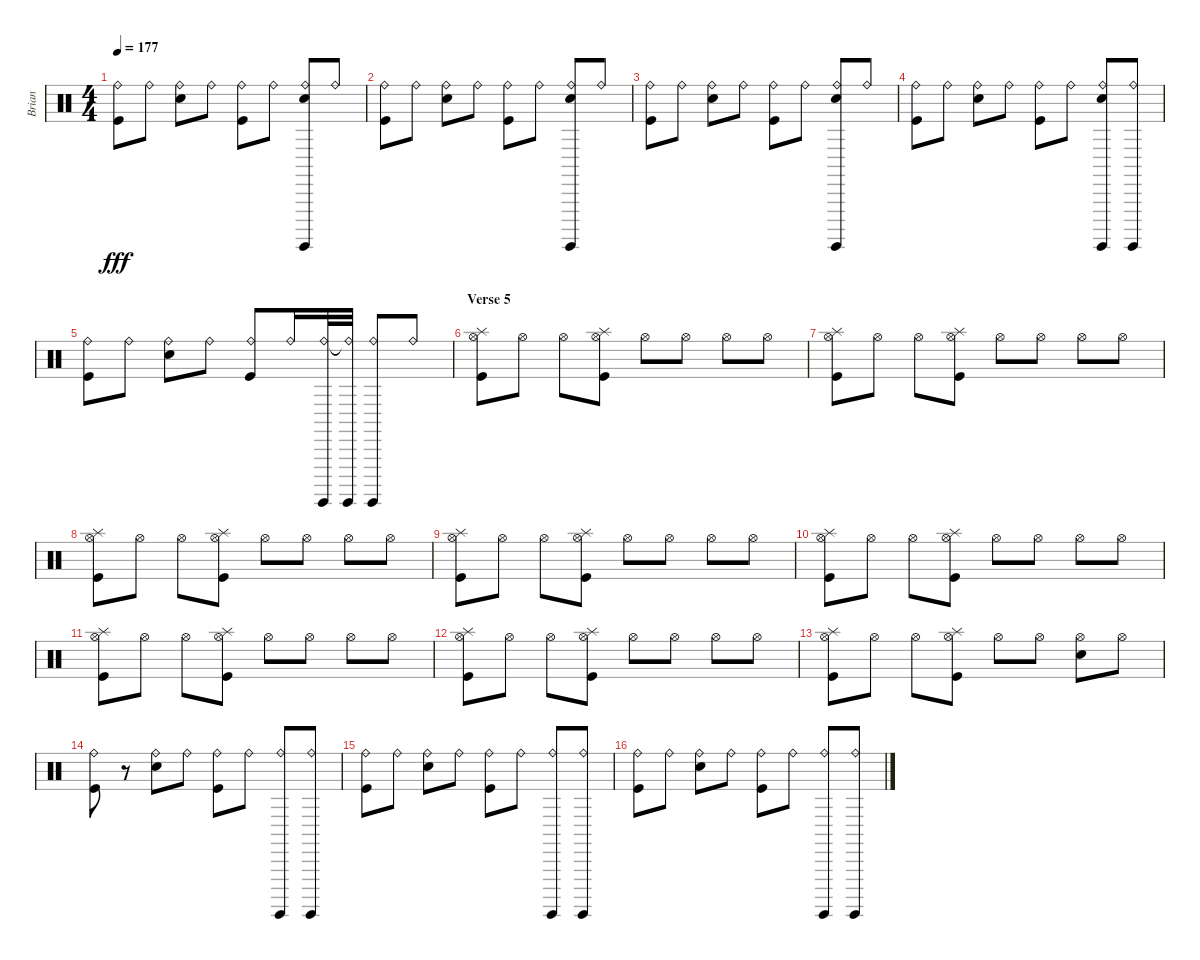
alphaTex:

\track ("Brian" "Brian") {instrument percussion}
\staff {score}
\articulation defaults
\ts (4 4)
\tempo 177
\clef neutral
\ks c
("Ride (bell)" "Kick (hit)").8{dy fff} "Ride (bell)".8 ("Ride (bell)" "Electric Snare (hit)").8 "Ride (bell)".8 ("Ride (bell)" "Kick (hit)").8 "Ride (bell)".8 ("Surdo (hit)" "Ride (bell)" "Electric Snare (hit)").8 "Ride (bell)".8 |
("Ride (bell)" "Kick (hit)").8 "Ride (bell)".8 ("Ride (bell)" "Electric Snare (hit)").8 "Ride (bell)".8 ("Ride (bell)" "Kick (hit)").8 "Ride (bell)".8 ("Surdo (hit)" "Ride (bell)" "Electric Snare (hit)").8 "Ride (bell)".8 |
("Ride (bell)" "Kick (hit)").8 "Ride (bell)".8 ("Ride (bell)" "Electric Snare (hit)").8 "Ride (bell)".8 ("Ride (bell)" "Kick (hit)").8 "Ride (bell)".8 ("Surdo (hit)" "Ride (bell)" "Electric Snare (hit)").8 "Ride (bell)".8 |
("Ride (bell)" "Kick (hit)").8 "Ride (bell)".8 ("Ride (bell)" "Electric Snare (hit)").8 "Ride (bell)".8 ("Ride (bell)" "Kick (hit)").8 "Ride (bell)".8 ("Surdo (hit)" "Ride (bell)" "Electric Snare (hit)").8 ("Surdo (hit)" "Ride (bell)").8 |
("Ride (bell)" "Kick (hit)").8 "Ride (bell)".8 ("Ride (bell)" "Electric Snare (hit)").8 "Ride (bell)".8 ("Ride (bell)" "Kick (hit)").8 "Ride (bell)".16 ("Surdo (hit)" "Ride (bell)").32 ("Surdo (hit)" "Ride (bell)"{t}).32 ("Surdo (hit)" "Ride (bell)").8 "Ride (bell)".8 |
\section ("" "Verse 5")
("Splash (hit)" "Hi-Hat (open)" "Kick (hit)").8 "Hi-Hat (open)".8 "Hi-Hat (open)".8 ("Splash (hit)" "Hi-Hat (open)" "Kick (hit)").8 "Hi-Hat (open)".8 "Hi-Hat (open)".8 "Hi-Hat (open)".8 "Hi-Hat (open)".8 |
("Splash (hit)" "Hi-Hat (open)" "Kick (hit)").8 "Hi-Hat (open)".8 "Hi-Hat (open)".8 ("Splash (hit)" "Hi-Hat (open)" "Kick (hit)").8 "Hi-Hat (open)".8 "Hi-Hat (open)".8 "Hi-Hat (open)".8 "Hi-Hat (open)".8 |
("Splash (hit)" "Hi-Hat (open)" "Kick (hit)").8 "Hi-Hat (open)".8 "Hi-Hat (open)".8 ("Splash (hit)" "Hi-Hat (open)" "Kick (hit)").8 "Hi-Hat (open)".8 "Hi-Hat (open)".8 "Hi-Hat (open)".8 "Hi-Hat (open)".8 |
("Splash (hit)" "Hi-Hat (open)" "Kick (hit)").8 "Hi-Hat (open)".8 "Hi-Hat (open)".8 ("Splash (hit)" "Hi-Hat (open)" "Kick (hit)").8 "Hi-Hat (open)".8 "Hi-Hat (open)".8 "Hi-Hat (open)".8 "Hi-Hat (open)".8 |
("Splash (hit)" "Hi-Hat (open)" "Kick (hit)").8 "Hi-Hat (open)".8 "Hi-Hat (open)".8 ("Splash (hit)" "Hi-Hat (open)" "Kick (hit)").8 "Hi-Hat (open)".8 "Hi-Hat (open)".8 "Hi-Hat (open)".8 "Hi-Hat (open)".8 |
("Splash (hit)" "Hi-Hat (open)" "Kick (hit)").8 "Hi-Hat (open)".8 "Hi-Hat (open)".8 ("Splash (hit)" "Hi-Hat (open)" "Kick (hit)").8 "Hi-Hat (open)".8 "Hi-Hat (open)".8 "Hi-Hat (open)".8 "Hi-Hat (open)".8 |
("Splash (hit)" "Hi-Hat (open)" "Kick (hit)").8 "Hi-Hat (open)".8 "Hi-Hat (open)".8 ("Splash (hit)" "Hi-Hat (open)" "Kick (hit)").8 "Hi-Hat (open)".8 "Hi-Hat (open)".8 "Hi-Hat (open)".8 "Hi-Hat (open)".8 |
("Splash (hit)" "Hi-Hat (open)" "Kick (hit)").8 "Hi-Hat (open)".8 "Hi-Hat (open)".8 ("Splash (hit)" "Hi-Hat (open)" "Kick (hit)").8 "Hi-Hat (open)".8 "Hi-Hat (open)".8 ("Hi-Hat (open)" "Electric Snare (hit)").8 "Hi-Hat (open)".8 |
("Ride (bell)" "Kick (hit)").8 r.8 ("Ride (bell)" "Electric Snare (hit)").8 "Ride (bell)".8 ("Ride (bell)" "Kick (hit)").8 "Ride (bell)".8 ("Surdo (hit)" "Ride (bell)").8 ("Surdo (hit)" "Ride (bell)").8 |
("Ride (bell)" "Kick (hit)").8 "Ride (bell)".8 ("Ride (bell)" "Electric Snare (hit)").8 "Ride (bell)".8 ("Ride (bell)" "Kick (hit)").8 "Ride (bell)".8 ("Surdo (hit)" "Ride (bell)").8 ("Surdo (hit)" "Ride (bell)").8 |
("Ride (bell)" "Kick (hit)").8 "Ride (bell)".8 ("Ride (bell)" "Electric Snare (hit)").8 "Ride (bell)".8 ("Ride (bell)" "Kick (hit)").8 "Ride (bell)".8 ("Surdo (hit)" "Ride (bell)").8 ("Surdo (hit)" "Ride (bell)").8
